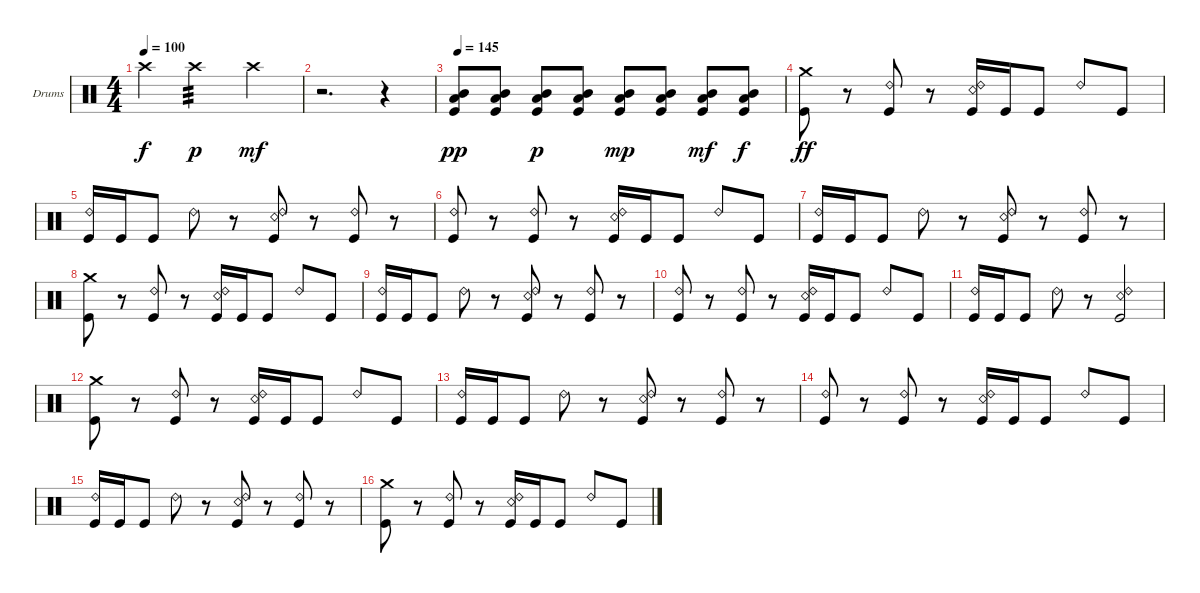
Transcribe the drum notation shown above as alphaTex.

\bracketExtendMode groupsimilarinstruments
\firstSystemTrackNameOrientation horizontal
\otherSystemsTrackNameOrientation horizontal
\track ("Kaleb - Drums" "Drums") {instrument percussion}
\staff {score}
\articulation defaults
\ts (4 4)
\tempo 100
\clef neutral
\ks c "Crash high (hit)".4{dy f} "Crash high (hit)".2{tp 3 dy p} "Crash high (hit)".4{dy mf}
|
r.2{d} r.4 |
\tempo 145
("Kick (hit)" "Low Tom (hit)" "Mid Tom (hit)").8{dy pp} ("Kick (hit)" "Low Tom (hit)" "Mid Tom (hit)").8 ("Kick (hit)" "Low Tom (hit)" "Mid Tom (hit)").8{dy p} ("Kick (hit)" "Low Tom (hit)" "Mid Tom (hit)").8 ("Kick (hit)" "Low Tom (hit)" "Mid Tom (hit)").8{dy mp} ("Kick (hit)" "Low Tom (hit)" "Mid Tom (hit)").8 ("Kick (hit)" "Low Tom (hit)" "Mid Tom (hit)").8{dy mf} ("Kick (hit)" "Low Tom (hit)" "Mid Tom (hit)").8{dy f} |
("Kick (hit)" "Crash medium (hit)").8{dy ff} r.8 ("Kick (hit)" "Ride (bell) 2").8 r.8 ("Kick (hit)" "Ride (bell) 2" "Snare (rim shot)").16 "Kick (hit)".16 "Kick (hit)".8 "Ride (bell) 2".8 "Kick (hit)".8 |
("Kick (hit)" "Ride (bell) 2").16 "Kick (hit)".16 "Kick (hit)".8 "Ride (bell) 2".8 r.8 ("Kick (hit)" "Ride (bell) 2" "Snare (rim shot)").8 r.8 ("Kick (hit)" "Ride (bell) 2").8 r.8 |
("Kick (hit)" "Ride (bell) 2").8 r.8 ("Kick (hit)" "Ride (bell) 2").8 r.8 ("Kick (hit)" "Ride (bell) 2" "Snare (rim shot)").16 "Kick (hit)".16 "Kick (hit)".8 "Ride (bell) 2".8 "Kick (hit)".8 |
("Kick (hit)" "Ride (bell) 2").16 "Kick (hit)".16 "Kick (hit)".8 "Ride (bell) 2".8 r.8 ("Kick (hit)" "Ride (bell) 2" "Snare (rim shot)").8 r.8 ("Kick (hit)" "Ride (bell) 2").8 r.8 |
("Kick (hit)" "Crash medium (hit)").8 r.8 ("Kick (hit)" "Ride (bell) 2").8 r.8 ("Kick (hit)" "Ride (bell) 2" "Snare (rim shot)").16 "Kick (hit)".16 "Kick (hit)".8 "Ride (bell) 2".8 "Kick (hit)".8 |
("Kick (hit)" "Ride (bell) 2").16 "Kick (hit)".16 "Kick (hit)".8 "Ride (bell) 2".8 r.8 ("Kick (hit)" "Ride (bell) 2" "Snare (rim shot)").8 r.8 ("Kick (hit)" "Ride (bell) 2").8 r.8 |
("Kick (hit)" "Ride (bell) 2").8 r.8 ("Kick (hit)" "Ride (bell) 2").8 r.8 ("Kick (hit)" "Ride (bell) 2" "Snare (rim shot)").16 "Kick (hit)".16 "Kick (hit)".8 "Ride (bell) 2".8 "Kick (hit)".8 |
("Kick (hit)" "Ride (bell) 2").16 "Kick (hit)".16 "Kick (hit)".8 "Ride (bell) 2".8 r.8 ("Kick (hit)" "Ride (bell) 2" "Snare (rim shot)").2 |
("Kick (hit)" "Crash medium (hit)").8 r.8 ("Kick (hit)" "Ride (bell) 2").8 r.8 ("Kick (hit)" "Ride (bell) 2" "Snare (rim shot)").16 "Kick (hit)".16 "Kick (hit)".8 "Ride (bell) 2".8 "Kick (hit)".8 |
("Kick (hit)" "Ride (bell) 2").16 "Kick (hit)".16 "Kick (hit)".8 "Ride (bell) 2".8 r.8 ("Kick (hit)" "Ride (bell) 2" "Snare (rim shot)").8 r.8 ("Kick (hit)" "Ride (bell) 2").8 r.8 |
("Kick (hit)" "Ride (bell) 2").8 r.8 ("Kick (hit)" "Ride (bell) 2").8 r.8 ("Kick (hit)" "Ride (bell) 2" "Snare (rim shot)").16 "Kick (hit)".16 "Kick (hit)".8 "Ride (bell) 2".8 "Kick (hit)".8 |
("Kick (hit)" "Ride (bell) 2").16 "Kick (hit)".16 "Kick (hit)".8 "Ride (bell) 2".8 r.8 ("Kick (hit)" "Ride (bell) 2" "Snare (rim shot)").8 r.8 ("Kick (hit)" "Ride (bell) 2").8 r.8 |
("Kick (hit)" "Crash medium (hit)").8 r.8 ("Kick (hit)" "Ride (bell) 2").8 r.8 ("Kick (hit)" "Ride (bell) 2" "Snare (rim shot)").16 "Kick (hit)".16 "Kick (hit)".8 "Ride (bell) 2".8 "Kick (hit)".8
